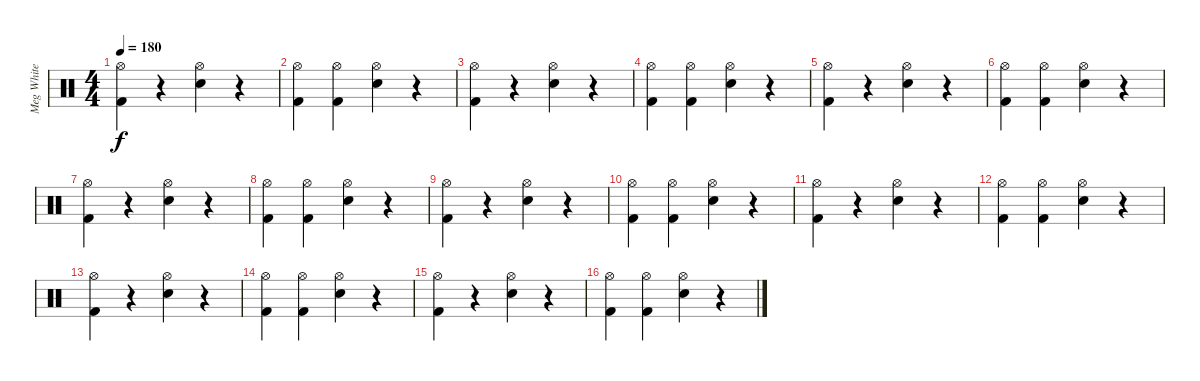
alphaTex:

\track ("Meg White" "Meg White") {instrument percussion}
\staff {score}
\articulation defaults
\ts (4 4)
\tempo 180
\clef neutral
\ks c
("Hi-Hat (open)" "Kick (hit) 2").4{dy f} r.4 ("Hi-Hat (open)" "Snare (hit) 2").4 r.4 |
("Hi-Hat (open)" "Kick (hit) 2").4 ("Hi-Hat (open)" "Kick (hit) 2").4 ("Hi-Hat (open)" "Snare (hit) 2").4 r.4 |
("Hi-Hat (open)" "Kick (hit) 2").4 r.4 ("Hi-Hat (open)" "Snare (hit) 2").4 r.4 |
("Hi-Hat (open)" "Kick (hit) 2").4 ("Hi-Hat (open)" "Kick (hit) 2").4 ("Hi-Hat (open)" "Snare (hit) 2").4 r.4 |
("Hi-Hat (open)" "Kick (hit) 2").4 r.4 ("Hi-Hat (open)" "Snare (hit) 2").4 r.4 |
("Hi-Hat (open)" "Kick (hit) 2").4 ("Hi-Hat (open)" "Kick (hit) 2").4 ("Hi-Hat (open)" "Snare (hit) 2").4 r.4 |
("Hi-Hat (open)" "Kick (hit) 2").4 r.4 ("Hi-Hat (open)" "Snare (hit) 2").4 r.4 |
("Hi-Hat (open)" "Kick (hit) 2").4 ("Hi-Hat (open)" "Kick (hit) 2").4 ("Hi-Hat (open)" "Snare (hit) 2").4 r.4 |
("Hi-Hat (open)" "Kick (hit) 2").4 r.4 ("Hi-Hat (open)" "Snare (hit) 2").4 r.4 |
("Hi-Hat (open)" "Kick (hit) 2").4 ("Hi-Hat (open)" "Kick (hit) 2").4 ("Hi-Hat (open)" "Snare (hit) 2").4 r.4 |
("Hi-Hat (open)" "Kick (hit) 2").4 r.4 ("Hi-Hat (open)" "Snare (hit) 2").4 r.4 |
("Hi-Hat (open)" "Kick (hit) 2").4 ("Hi-Hat (open)" "Kick (hit) 2").4 ("Hi-Hat (open)" "Snare (hit) 2").4 r.4 |
("Hi-Hat (open)" "Kick (hit) 2").4 r.4 ("Hi-Hat (open)" "Snare (hit) 2").4 r.4 |
("Hi-Hat (open)" "Kick (hit) 2").4 ("Hi-Hat (open)" "Kick (hit) 2").4 ("Hi-Hat (open)" "Snare (hit) 2").4 r.4 |
("Hi-Hat (open)" "Kick (hit) 2").4 r.4 ("Hi-Hat (open)" "Snare (hit) 2").4 r.4 |
("Hi-Hat (open)" "Kick (hit) 2").4 ("Hi-Hat (open)" "Kick (hit) 2").4 ("Hi-Hat (open)" "Snare (hit) 2").4 r.4
